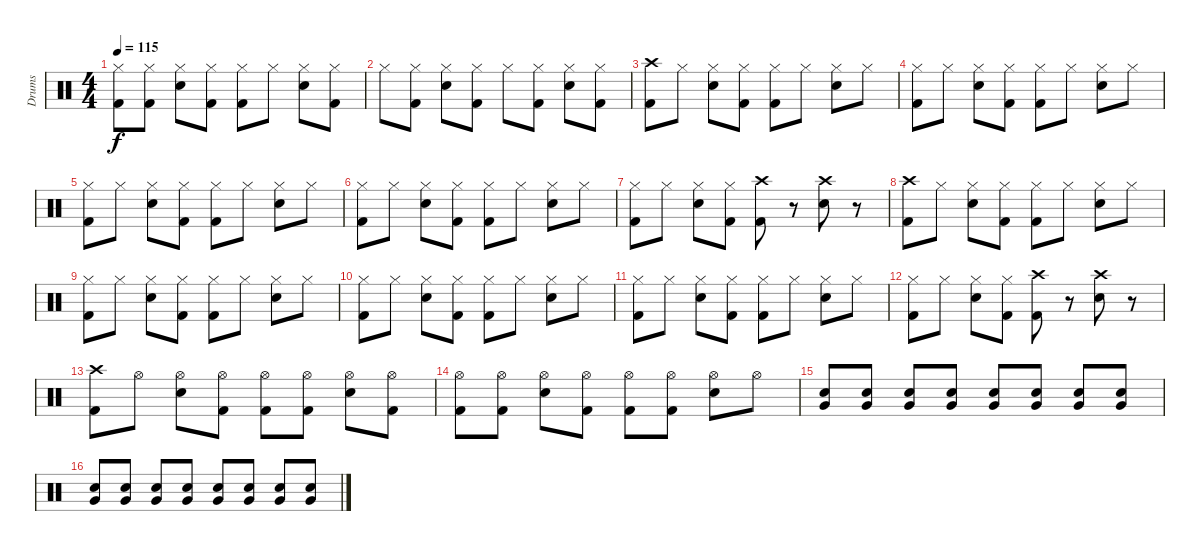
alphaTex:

\track ("Drums" "Drums") {instrument percussion}
\staff {score}
\articulation defaults
\ts (4 4)
\tempo 115
\clef neutral
\ks c
("Kick (hit) 2" "Hi-Hat (closed)").8{dy f} ("Kick (hit) 2" "Hi-Hat (closed)").8 ("Hi-Hat (closed)" "Electric Snare (hit)").8 ("Hi-Hat (closed)" "Kick (hit) 2").8 ("Hi-Hat (closed)" "Kick (hit) 2").8 "Hi-Hat (closed)".8 ("Hi-Hat (closed)" "Electric Snare (hit)").8 ("Hi-Hat (closed)" "Kick (hit) 2").8 |
"Hi-Hat (closed)".8 ("Hi-Hat (closed)" "Kick (hit) 2").8 ("Hi-Hat (closed)" "Electric Snare (hit)").8 ("Hi-Hat (closed)" "Kick (hit) 2").8 "Hi-Hat (closed)".8 ("Hi-Hat (closed)" "Kick (hit) 2").8 ("Hi-Hat (closed)" "Electric Snare (hit)").8 ("Hi-Hat (closed)" "Kick (hit) 2").8 |
("Crash high (hit)" "Kick (hit) 2").8 "Hi-Hat (closed)".8 ("Hi-Hat (closed)" "Electric Snare (hit)").8 ("Hi-Hat (closed)" "Kick (hit) 2").8 ("Hi-Hat (closed)" "Kick (hit) 2").8 "Hi-Hat (closed)".8 ("Hi-Hat (closed)" "Electric Snare (hit)").8 "Hi-Hat (closed)".8 |
("Hi-Hat (closed)" "Kick (hit) 2").8 "Hi-Hat (closed)".8 ("Hi-Hat (closed)" "Electric Snare (hit)").8 ("Hi-Hat (closed)" "Kick (hit) 2").8 ("Hi-Hat (closed)" "Kick (hit) 2").8 "Hi-Hat (closed)".8 ("Hi-Hat (closed)" "Electric Snare (hit)").8 "Hi-Hat (closed)".8 |
("Hi-Hat (closed)" "Kick (hit) 2").8 "Hi-Hat (closed)".8 ("Hi-Hat (closed)" "Electric Snare (hit)").8 ("Hi-Hat (closed)" "Kick (hit) 2").8 ("Hi-Hat (closed)" "Kick (hit) 2").8 "Hi-Hat (closed)".8 ("Hi-Hat (closed)" "Electric Snare (hit)").8 "Hi-Hat (closed)".8 |
("Hi-Hat (closed)" "Kick (hit) 2").8 "Hi-Hat (closed)".8 ("Hi-Hat (closed)" "Electric Snare (hit)").8 ("Hi-Hat (closed)" "Kick (hit) 2").8 ("Hi-Hat (closed)" "Kick (hit) 2").8 "Hi-Hat (closed)".8 ("Hi-Hat (closed)" "Electric Snare (hit)").8 "Hi-Hat (closed)".8 |
("Hi-Hat (closed)" "Kick (hit) 2").8 "Hi-Hat (closed)".8 ("Hi-Hat (closed)" "Electric Snare (hit)").8 ("Hi-Hat (closed)" "Kick (hit) 2").8 ("Crash high (hit)" "Kick (hit) 2").8 r.8 ("Crash high (hit)" "Electric Snare (hit)").8 r.8 |
("Crash high (hit)" "Kick (hit) 2").8 "Hi-Hat (closed)".8 ("Hi-Hat (closed)" "Electric Snare (hit)").8 ("Hi-Hat (closed)" "Kick (hit) 2").8 ("Hi-Hat (closed)" "Kick (hit) 2").8 "Hi-Hat (closed)".8 ("Hi-Hat (closed)" "Electric Snare (hit)").8 "Hi-Hat (closed)".8 |
("Hi-Hat (closed)" "Kick (hit) 2").8 "Hi-Hat (closed)".8 ("Hi-Hat (closed)" "Electric Snare (hit)").8 ("Hi-Hat (closed)" "Kick (hit) 2").8 ("Hi-Hat (closed)" "Kick (hit) 2").8 "Hi-Hat (closed)".8 ("Hi-Hat (closed)" "Electric Snare (hit)").8 "Hi-Hat (closed)".8 |
("Hi-Hat (closed)" "Kick (hit) 2").8 "Hi-Hat (closed)".8 ("Hi-Hat (closed)" "Electric Snare (hit)").8 ("Hi-Hat (closed)" "Kick (hit) 2").8 ("Hi-Hat (closed)" "Kick (hit) 2").8 "Hi-Hat (closed)".8 ("Hi-Hat (closed)" "Electric Snare (hit)").8 "Hi-Hat (closed)".8 |
("Hi-Hat (closed)" "Kick (hit) 2").8 "Hi-Hat (closed)".8 ("Hi-Hat (closed)" "Electric Snare (hit)").8 ("Hi-Hat (closed)" "Kick (hit) 2").8 ("Hi-Hat (closed)" "Kick (hit) 2").8 "Hi-Hat (closed)".8 ("Hi-Hat (closed)" "Electric Snare (hit)").8 "Hi-Hat (closed)".8 |
("Hi-Hat (closed)" "Kick (hit) 2").8 "Hi-Hat (closed)".8 ("Hi-Hat (closed)" "Electric Snare (hit)").8 ("Hi-Hat (closed)" "Kick (hit) 2").8 ("Crash high (hit)" "Kick (hit) 2").8 r.8 ("Crash high (hit)" "Electric Snare (hit)").8 r.8 |
("Kick (hit) 2" "Crash high (hit)").8 "Hi-Hat (open)".8 ("Hi-Hat (open)" "Electric Snare (hit)").8 ("Hi-Hat (open)" "Kick (hit) 2").8 ("Hi-Hat (open)" "Kick (hit) 2").8 ("Hi-Hat (open)" "Kick (hit) 2").8 ("Hi-Hat (open)" "Electric Snare (hit)").8 ("Hi-Hat (open)" "Kick (hit) 2").8 |
("Hi-Hat (open)" "Kick (hit) 2").8 ("Hi-Hat (open)" "Kick (hit) 2").8 ("Hi-Hat (open)" "Electric Snare (hit)").8 ("Hi-Hat (open)" "Kick (hit) 2").8 ("Hi-Hat (open)" "Kick (hit) 2").8 ("Hi-Hat (open)" "Kick (hit) 2").8 ("Hi-Hat (open)" "Electric Snare (hit)").8 "Hi-Hat (open)".8 |
("Electric Snare (hit)" "Very Low Tom (hit)").8 ("Electric Snare (hit)" "Very Low Tom (hit)").8 ("Electric Snare (hit)" "Very Low Tom (hit)").8 ("Electric Snare (hit)" "Very Low Tom (hit)").8 ("Electric Snare (hit)" "Very Low Tom (hit)").8 ("Electric Snare (hit)" "Very Low Tom (hit)").8 ("Electric Snare (hit)" "Very Low Tom (hit)").8 ("Electric Snare (hit)" "Very Low Tom (hit)").8 |
("Electric Snare (hit)" "Very Low Tom (hit)").8 ("Electric Snare (hit)" "Very Low Tom (hit)").8 ("Electric Snare (hit)" "Very Low Tom (hit)").8 ("Electric Snare (hit)" "Very Low Tom (hit)").8 ("Electric Snare (hit)" "Very Low Tom (hit)").8 ("Electric Snare (hit)" "Very Low Tom (hit)").8 ("Electric Snare (hit)" "Very Low Tom (hit)").8 ("Electric Snare (hit)" "Very Low Tom (hit)").8
